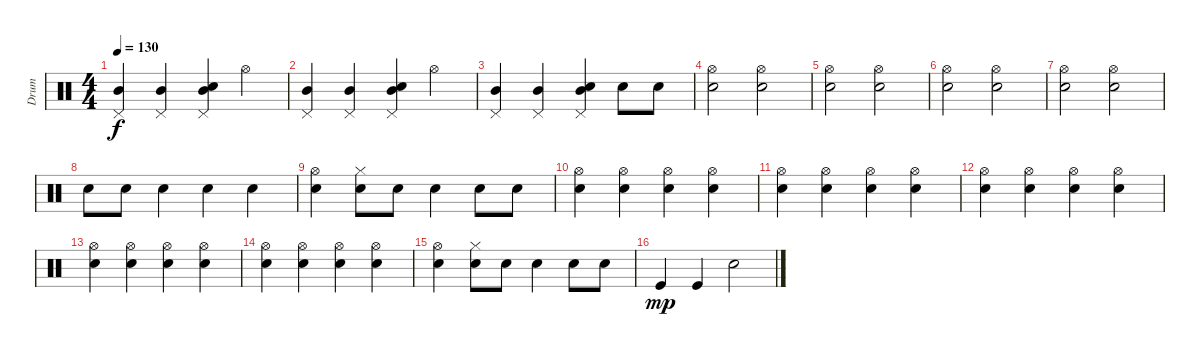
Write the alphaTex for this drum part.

\track ("Drum" "Drum") {instrument percussion}
\staff {score}
\articulation defaults
\ts (4 4)
\tempo 130
\clef neutral
\ks c
("Pedal Hi-Hat (hit)" "Mid Tom (hit)").4{dy f} ("Pedal Hi-Hat (hit)" "Mid Tom (hit)").4 ("Pedal Hi-Hat (hit)" "Mid Tom (hit)" "Snare (hit) 2").4 "Hi-Hat (open)".4 |
("Pedal Hi-Hat (hit)" "Mid Tom (hit)").4 ("Pedal Hi-Hat (hit)" "Mid Tom (hit)").4 ("Pedal Hi-Hat (hit)" "Mid Tom (hit)" "Snare (hit) 2").4 "Hi-Hat (open)".4 |
("Pedal Hi-Hat (hit)" "Mid Tom (hit)").4 ("Pedal Hi-Hat (hit)" "Mid Tom (hit)").4 ("Pedal Hi-Hat (hit)" "Mid Tom (hit)" "Snare (hit) 2").4 "Snare (hit) 2".8 "Snare (hit) 2".8 |
("Snare (hit) 2" "Hi-Hat (open)").2 ("Snare (hit) 2" "Hi-Hat (open)").2 |
("Snare (hit) 2" "Hi-Hat (open)").2 ("Snare (hit) 2" "Hi-Hat (open)").2 |
("Snare (hit) 2" "Hi-Hat (open)").2 ("Snare (hit) 2" "Hi-Hat (open)").2 |
("Snare (hit) 2" "Hi-Hat (open)").2 ("Snare (hit) 2" "Hi-Hat (open)").2 |
"Snare (hit) 2".8 "Snare (hit) 2".8 "Snare (hit) 2".4 "Snare (hit) 2".4 "Snare (hit) 2".4 |
("Snare (hit) 2" "Hi-Hat (open)").4 ("Hi-Hat (closed)" "Snare (hit) 2").8 "Snare (hit) 2".8 "Snare (hit) 2".4 "Snare (hit) 2".8 "Snare (hit) 2".8 |
("Snare (hit) 2" "Hi-Hat (open)").4 ("Snare (hit) 2" "Hi-Hat (open)").4 ("Snare (hit) 2" "Hi-Hat (open)").4 ("Snare (hit) 2" "Hi-Hat (open)").4 |
("Snare (hit) 2" "Hi-Hat (open)").4 ("Snare (hit) 2" "Hi-Hat (open)").4 ("Snare (hit) 2" "Hi-Hat (open)").4 ("Snare (hit) 2" "Hi-Hat (open)").4 |
("Snare (hit) 2" "Hi-Hat (open)").4 ("Snare (hit) 2" "Hi-Hat (open)").4 ("Snare (hit) 2" "Hi-Hat (open)").4 ("Snare (hit) 2" "Hi-Hat (open)").4 |
("Snare (hit) 2" "Hi-Hat (open)").4 ("Snare (hit) 2" "Hi-Hat (open)").4 ("Snare (hit) 2" "Hi-Hat (open)").4 ("Snare (hit) 2" "Hi-Hat (open)").4 |
("Snare (hit) 2" "Hi-Hat (open)").4 ("Snare (hit) 2" "Hi-Hat (open)").4 ("Snare (hit) 2" "Hi-Hat (open)").4 ("Snare (hit) 2" "Hi-Hat (open)").4 |
("Snare (hit) 2" "Hi-Hat (open)").4 ("Hi-Hat (closed)" "Snare (hit) 2").8 "Snare (hit) 2".8 "Snare (hit) 2".4 "Snare (hit) 2".8 "Snare (hit) 2".8 |
"Kick (hit)".4{dy mp} "Kick (hit)".4 "Snare (hit) 2".2
